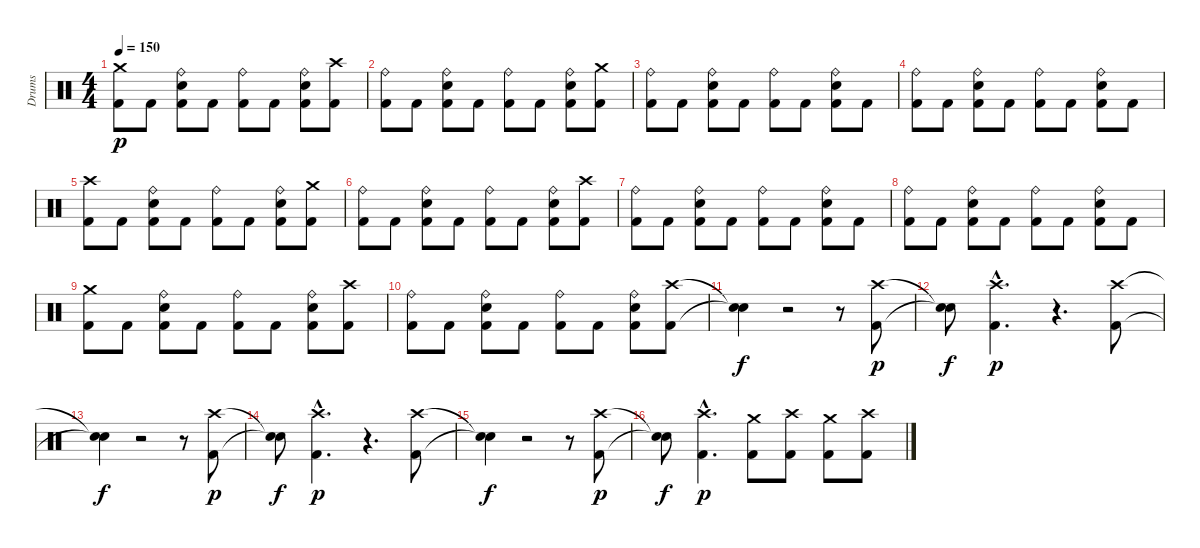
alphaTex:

\track ("Drums" "Drums") {instrument percussion}
\staff {score}
\articulation defaults
\ts (4 4)
\tempo 150
\clef neutral
\ks c
("Kick (hit) 2" "Crash medium (hit)").8{dy p} "Kick (hit) 2".8 ("Kick (hit) 2" "Snare (hit) 2" "Ride (bell)").8 "Kick (hit) 2".8 ("Kick (hit) 2" "Ride (bell)").8 "Kick (hit) 2".8 ("Kick (hit) 2" "Snare (hit) 2" "Ride (bell)").8 ("Kick (hit) 2" "Crash high (hit)").8 |
("Kick (hit) 2" "Ride (bell)").8 "Kick (hit) 2".8 ("Kick (hit) 2" "Snare (hit) 2" "Ride (bell)").8 "Kick (hit) 2".8 ("Kick (hit) 2" "Ride (bell)").8 "Kick (hit) 2".8 ("Kick (hit) 2" "Snare (hit) 2" "Ride (bell)").8 ("Kick (hit) 2" "Crash medium (hit)").8 |
("Kick (hit) 2" "Ride (bell)").8 "Kick (hit) 2".8 ("Kick (hit) 2" "Snare (hit) 2" "Ride (bell)").8 "Kick (hit) 2".8 ("Kick (hit) 2" "Ride (bell)").8 "Kick (hit) 2".8 ("Kick (hit) 2" "Snare (hit) 2" "Ride (bell)").8 "Kick (hit) 2".8 |
("Kick (hit) 2" "Ride (bell)").8 "Kick (hit) 2".8 ("Kick (hit) 2" "Snare (hit) 2" "Ride (bell)").8 "Kick (hit) 2".8 ("Kick (hit) 2" "Ride (bell)").8 "Kick (hit) 2".8 ("Kick (hit) 2" "Snare (hit) 2" "Ride (bell)").8 "Kick (hit) 2".8 |
("Kick (hit) 2" "Crash high (hit)").8 "Kick (hit) 2".8 ("Kick (hit) 2" "Snare (hit) 2" "Ride (bell)").8 "Kick (hit) 2".8 ("Kick (hit) 2" "Ride (bell)").8 "Kick (hit) 2".8 ("Kick (hit) 2" "Snare (hit) 2" "Ride (bell)").8 ("Kick (hit) 2" "Crash medium (hit)").8 |
("Kick (hit) 2" "Ride (bell)").8 "Kick (hit) 2".8 ("Kick (hit) 2" "Snare (hit) 2" "Ride (bell)").8 "Kick (hit) 2".8 ("Kick (hit) 2" "Ride (bell)").8 "Kick (hit) 2".8 ("Kick (hit) 2" "Snare (hit) 2" "Ride (bell)").8 ("Kick (hit) 2" "Crash high (hit)").8 |
("Kick (hit) 2" "Ride (bell)").8 "Kick (hit) 2".8 ("Kick (hit) 2" "Snare (hit) 2" "Ride (bell)").8 "Kick (hit) 2".8 ("Kick (hit) 2" "Ride (bell)").8 "Kick (hit) 2".8 ("Kick (hit) 2" "Snare (hit) 2" "Ride (bell)").8 "Kick (hit) 2".8 |
("Kick (hit) 2" "Ride (bell)").8 "Kick (hit) 2".8 ("Kick (hit) 2" "Snare (hit) 2" "Ride (bell)").8 "Kick (hit) 2".8 ("Kick (hit) 2" "Ride (bell)").8 "Kick (hit) 2".8 ("Kick (hit) 2" "Snare (hit) 2" "Ride (bell)").8 "Kick (hit) 2".8 |
("Kick (hit) 2" "Crash medium (hit)").8 "Kick (hit) 2".8 ("Kick (hit) 2" "Snare (hit) 2" "Ride (bell)").8 "Kick (hit) 2".8 ("Kick (hit) 2" "Ride (bell)").8 "Kick (hit) 2".8 ("Kick (hit) 2" "Snare (hit) 2" "Ride (bell)").8 ("Kick (hit) 2" "Crash high (hit)").8 |
("Kick (hit) 2" "Ride (bell)").8 "Kick (hit) 2".8 ("Kick (hit) 2" "Snare (hit) 2" "Ride (bell)").8 "Kick (hit) 2".8 ("Kick (hit) 2" "Ride (bell)").8 "Kick (hit) 2".8 ("Kick (hit) 2" "Snare (hit) 2" "Ride (bell)").8 ("Kick (hit) 2" "Crash high (hit)").8 |
("Snare (hit)"{t} "Snare (hit)"{t}).4{dy f} r.2 r.8 ("Kick (hit) 2" "Crash high (hit)").8{dy p} |
("Snare (hit)"{t} "Snare (hit)"{t}).8{dy f} ("Kick (hit) 2"{hac} "Crash high (hit)"{hac}).4{d dy p} r.4{d} ("Kick (hit) 2" "Crash high (hit)").8 |
("Snare (hit)"{t} "Snare (hit)"{t}).4{dy f} r.2 r.8 ("Kick (hit) 2" "Crash high (hit)").8{dy p} |
("Snare (hit)"{t} "Snare (hit)"{t}).8{dy f} ("Kick (hit) 2"{hac} "Crash high (hit)"{hac}).4{d dy p} r.4{d} ("Kick (hit) 2" "Crash high (hit)").8 |
("Snare (hit)"{t} "Snare (hit)"{t}).4{dy f} r.2 r.8 ("Kick (hit) 2" "Crash high (hit)").8{dy p} |
("Snare (hit)"{t} "Snare (hit)"{t}).8{dy f} ("Kick (hit) 2"{hac} "Crash high (hit)"{hac}).4{d dy p} ("Kick (hit) 2" "Crash medium (hit)").8 ("Kick (hit) 2" "Crash high (hit)").8 ("Kick (hit) 2" "Crash medium (hit)").8 ("Kick (hit) 2" "Crash high (hit)").8
